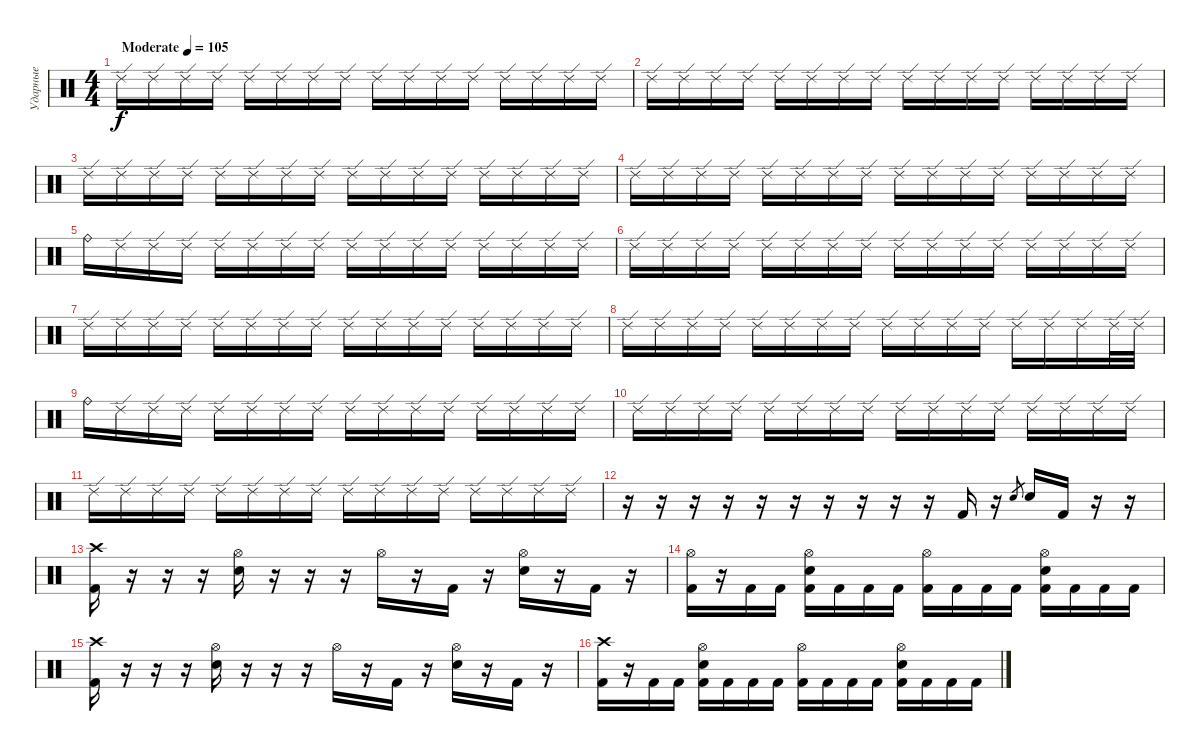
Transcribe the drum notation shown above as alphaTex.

\track ("Ударные" "Ударные") {instrument percussion}
\staff {score}
\articulation defaults
\ts (4 4)
\tempo (105 "Moderate")
\clef neutral
\ks c "Ride (edge) 2".16{dy f} "Ride (edge) 2".16 "Ride (edge) 2".16 "Ride (edge) 2".16 "Ride (edge) 2".16 "Ride (edge) 2".16 "Ride (edge) 2".16 "Ride (edge) 2".16 "Ride (edge) 2".16 "Ride (edge) 2".16 "Ride (edge) 2".16 "Ride (edge) 2".16 "Ride (edge) 2".16 "Ride (edge) 2".16 "Ride (edge) 2".16 "Ride (edge) 2".16
|
"Ride (edge) 2".16 "Ride (edge) 2".16 "Ride (edge) 2".16 "Ride (edge) 2".16 "Ride (edge) 2".16 "Ride (edge) 2".16 "Ride (edge) 2".16 "Ride (edge) 2".16 "Ride (edge) 2".16 "Ride (edge) 2".16 "Ride (edge) 2".16 "Ride (edge) 2".16 "Ride (edge) 2".16 "Ride (edge) 2".16 "Ride (edge) 2".16 "Ride (edge) 2".16 |
"Ride (edge) 2".16 "Ride (edge) 2".16 "Ride (edge) 2".16 "Ride (edge) 2".16 "Ride (edge) 2".16 "Ride (edge) 2".16 "Ride (edge) 2".16 "Ride (edge) 2".16 "Ride (edge) 2".16 "Ride (edge) 2".16 "Ride (edge) 2".16 "Ride (edge) 2".16 "Ride (edge) 2".16 "Ride (edge) 2".16 "Ride (edge) 2".16 "Ride (edge) 2".16 |
"Ride (edge) 2".16 "Ride (edge) 2".16 "Ride (edge) 2".16 "Ride (edge) 2".16 "Ride (edge) 2".16 "Ride (edge) 2".16 "Ride (edge) 2".16 "Ride (edge) 2".16 "Ride (edge) 2".16 "Ride (edge) 2".16 "Ride (edge) 2".16 "Ride (edge) 2".16 "Ride (edge) 2".16 "Ride (edge) 2".16 "Ride (edge) 2".16 "Ride (edge) 2".16 |
"Ride (bell)".16 "Ride (edge) 2".16 "Ride (edge) 2".16 "Ride (edge) 2".16 "Ride (edge) 2".16 "Ride (edge) 2".16 "Ride (edge) 2".16 "Ride (edge) 2".16 "Ride (edge) 2".16 "Ride (edge) 2".16 "Ride (edge) 2".16 "Ride (edge) 2".16 "Ride (edge) 2".16 "Ride (edge) 2".16 "Ride (edge) 2".16 "Ride (edge) 2".16 |
"Ride (edge) 2".16 "Ride (edge) 2".16 "Ride (edge) 2".16 "Ride (edge) 2".16 "Ride (edge) 2".16 "Ride (edge) 2".16 "Ride (edge) 2".16 "Ride (edge) 2".16 "Ride (edge) 2".16 "Ride (edge) 2".16 "Ride (edge) 2".16 "Ride (edge) 2".16 "Ride (edge) 2".16 "Ride (edge) 2".16 "Ride (edge) 2".16 "Ride (edge) 2".16 |
"Ride (edge) 2".16 "Ride (edge) 2".16 "Ride (edge) 2".16 "Ride (edge) 2".16 "Ride (edge) 2".16 "Ride (edge) 2".16 "Ride (edge) 2".16 "Ride (edge) 2".16 "Ride (edge) 2".16 "Ride (edge) 2".16 "Ride (edge) 2".16 "Ride (edge) 2".16 "Ride (edge) 2".16 "Ride (edge) 2".16 "Ride (edge) 2".16 "Ride (edge) 2".16 |
"Ride (edge) 2".16 "Ride (edge) 2".16 "Ride (edge) 2".16 "Ride (edge) 2".16 "Ride (edge) 2".16 "Ride (edge) 2".16 "Ride (edge) 2".16 "Ride (edge) 2".16 "Ride (edge) 2".16 "Ride (edge) 2".16 "Ride (edge) 2".16 "Ride (edge) 2".16 "Ride (edge) 2".16 "Ride (edge) 2".16 "Ride (edge) 2".16 "Ride (edge) 2".32 "Ride (edge) 2".32 |
"Ride (bell)".16 "Ride (edge) 2".16 "Ride (edge) 2".16 "Ride (edge) 2".16 "Ride (edge) 2".16 "Ride (edge) 2".16 "Ride (edge) 2".16 "Ride (edge) 2".16 "Ride (edge) 2".16 "Ride (edge) 2".16 "Ride (edge) 2".16 "Ride (edge) 2".16 "Ride (edge) 2".16 "Ride (edge) 2".16 "Ride (edge) 2".16 "Ride (edge) 2".16 |
"Ride (edge) 2".16 "Ride (edge) 2".16 "Ride (edge) 2".16 "Ride (edge) 2".16 "Ride (edge) 2".16 "Ride (edge) 2".16 "Ride (edge) 2".16 "Ride (edge) 2".16 "Ride (edge) 2".16 "Ride (edge) 2".16 "Ride (edge) 2".16 "Ride (edge) 2".16 "Ride (edge) 2".16 "Ride (edge) 2".16 "Ride (edge) 2".16 "Ride (edge) 2".16 |
"Ride (edge) 2".16 "Ride (edge) 2".16 "Ride (edge) 2".16 "Ride (edge) 2".16 "Ride (edge) 2".16 "Ride (edge) 2".16 "Ride (edge) 2".16 "Ride (edge) 2".16 "Ride (edge) 2".16 "Ride (edge) 2".16 "Ride (edge) 2".16 "Ride (edge) 2".16 "Ride (edge) 2".16 "Ride (edge) 2".16 "Ride (edge) 2".16 "Ride (edge) 2".16 |
r.16 r.16 r.16 r.16 r.16 r.16 r.16 r.16 r.16 r.16 "Kick (hit) 2".16 r.16 "Electric Snare (hit)".8{gr} "Electric Snare (hit)".16 "Kick (hit) 2".16 r.16 r.16 |
("Crash high (hit)" "Kick (hit) 2").16 r.16 r.16 r.16 ("Hi-Hat (open)" "Electric Snare (hit)").16 r.16 r.16 r.16 "Hi-Hat (open)".16 r.16 "Kick (hit) 2".16 r.16 ("Hi-Hat (open)" "Electric Snare (hit)").16 r.16 "Kick (hit) 2".16 r.16 |
("Hi-Hat (open)" "Kick (hit) 2").16 r.16 "Kick (hit) 2".16 "Kick (hit) 2".16 ("Hi-Hat (open)" "Electric Snare (hit)" "Kick (hit) 2").16 "Kick (hit) 2".16 "Kick (hit) 2".16 "Kick (hit) 2".16 ("Hi-Hat (open)" "Kick (hit) 2").16 "Kick (hit) 2".16 "Kick (hit) 2".16 "Kick (hit) 2".16 ("Hi-Hat (open)" "Electric Snare (hit)" "Kick (hit) 2").16 "Kick (hit) 2".16 "Kick (hit) 2".16 "Kick (hit) 2".16 |
("Crash high (hit)" "Kick (hit) 2").16 r.16 r.16 r.16 ("Hi-Hat (open)" "Electric Snare (hit)").16 r.16 r.16 r.16 "Hi-Hat (open)".16 r.16 "Kick (hit) 2".16 r.16 ("Hi-Hat (open)" "Electric Snare (hit)").16 r.16 "Kick (hit) 2".16 r.16 |
("Crash high (hit)" "Kick (hit) 2").16 r.16 "Kick (hit) 2".16 "Kick (hit) 2".16 ("Hi-Hat (open)" "Electric Snare (hit)" "Kick (hit) 2").16 "Kick (hit) 2".16 "Kick (hit) 2".16 "Kick (hit) 2".16 ("Hi-Hat (open)" "Kick (hit) 2").16 "Kick (hit) 2".16 "Kick (hit) 2".16 "Kick (hit) 2".16 ("Hi-Hat (open)" "Electric Snare (hit)" "Kick (hit) 2").16 "Kick (hit) 2".16 "Kick (hit) 2".16 "Kick (hit) 2".16
